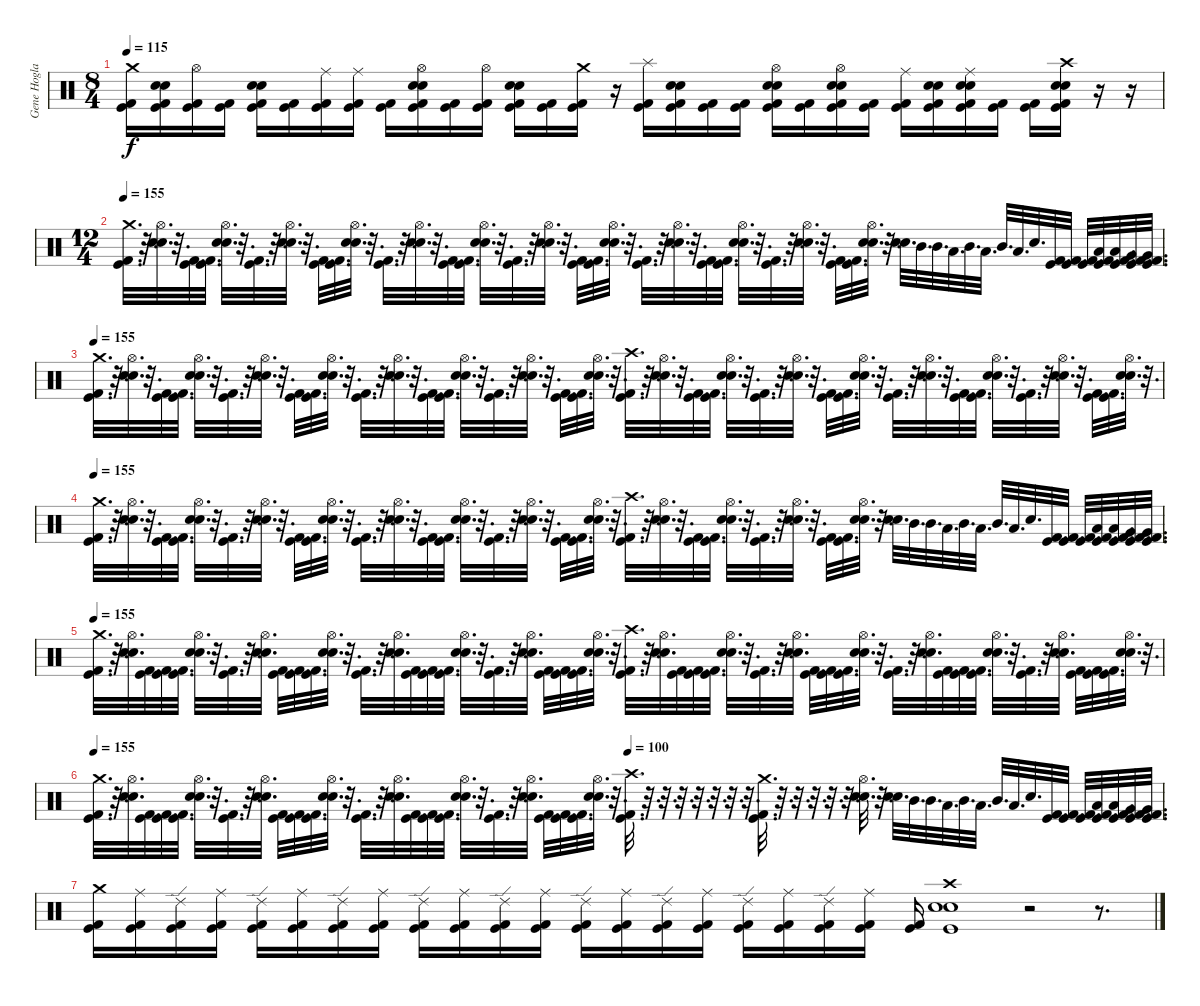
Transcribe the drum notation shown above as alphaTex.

\track ("Gene Hoglan" "Gene Hogla") {instrument percussion}
\staff {score}
\articulation defaults
\ts (8 4)
\tempo 115
\clef neutral
\ks c
("Crash medium (hit)" "Kick (hit) 2" "Kick (hit)").16{dy f} ("Snare (hit) 2" "Electric Snare (hit)" "Kick (hit) 2" "Kick (hit)").16 ("Hi-Hat (open)" "Kick (hit) 2" "Kick (hit)").16 ("Kick (hit) 2" "Kick (hit)").16 ("Snare (hit) 2" "Electric Snare (hit)" "Kick (hit) 2" "Kick (hit)").16 ("Kick (hit) 2" "Kick (hit)").16 ("Ride (middle)" "Kick (hit) 2" "Kick (hit)").16 ("Ride (middle)" "Kick (hit) 2" "Kick (hit)").16 ("Kick (hit) 2" "Kick (hit)").16 ("Hi-Hat (open)" "Snare (hit) 2" "Electric Snare (hit)" "Kick (hit) 2" "Kick (hit)").16 ("Kick (hit) 2" "Kick (hit)").16 ("Hi-Hat (open)" "Kick (hit) 2" "Kick (hit)").16 ("Snare (hit) 2" "Electric Snare (hit)" "Kick (hit) 2" "Kick (hit)").16 ("Kick (hit) 2" "Kick (hit)").16 ("Crash medium (hit)" "Kick (hit) 2" "Kick (hit)").16 r.16 ("Splash (hit)" "Kick (hit) 2" "Kick (hit)").16 ("Snare (hit) 2" "Electric Snare (hit)" "Kick (hit) 2" "Kick (hit)").16 ("Kick (hit) 2" "Kick (hit)").16 ("Kick (hit) 2" "Kick (hit)").16 ("Hi-Hat (open)" "Snare (hit) 2" "Electric Snare (hit)" "Kick (hit) 2" "Kick (hit)").16 ("Kick (hit) 2" "Kick (hit)").16 ("Hi-Hat (open)" "Snare (hit) 2" "Electric Snare (hit)" "Kick (hit) 2" "Kick (hit)").16 ("Kick (hit) 2" "Kick (hit)").16 ("Ride (middle)" "Kick (hit) 2" "Kick (hit)").16 ("Snare (hit) 2" "Electric Snare (hit)" "Kick (hit) 2" "Kick (hit)").16 ("Ride (middle)" "Snare (hit) 2" "Electric Snare (hit)" "Kick (hit) 2" "Kick (hit)").16 ("Kick (hit) 2" "Kick (hit)").16 ("Kick (hit) 2" "Kick (hit)").16 ("Crash high (hit)" "Snare (hit) 2" "Electric Snare (hit)" "Kick (hit) 2" "Kick (hit)").16 r.16 r.16 |
\ts (12 4)
\tempo 155
("Crash medium (hit)" "Kick (hit)" "Kick (hit) 2").32{d} r.32{d} ("Hi-Hat (open)" "Snare (hit) 2" "Electric Snare (hit)").32{d} r.32{d} ("Kick (hit) 2" "Kick (hit)").32{d} ("Kick (hit) 2" "Kick (hit)").32{d} ("Hi-Hat (open)" "Snare (hit) 2" "Electric Snare (hit)").32{d} r.32{d} ("Kick (hit) 2" "Kick (hit)").32{d} r.32{d} ("Hi-Hat (open)" "Snare (hit) 2" "Electric Snare (hit)").32{d} r.32{d} ("Kick (hit) 2" "Kick (hit)").32{d} ("Kick (hit) 2" "Kick (hit)").32{d} ("Hi-Hat (open)" "Snare (hit) 2" "Electric Snare (hit)").32{d} r.32{d} ("Kick (hit) 2" "Kick (hit)").32{d} r.32{d} ("Hi-Hat (open)" "Snare (hit) 2" "Electric Snare (hit)").32{d} r.32{d} ("Kick (hit) 2" "Kick (hit)").32{d} ("Kick (hit) 2" "Kick (hit)").32{d} ("Hi-Hat (open)" "Snare (hit) 2" "Electric Snare (hit)").32{d} r.32{d} ("Kick (hit) 2" "Kick (hit)").32{d} r.32{d} ("Hi-Hat (open)" "Snare (hit) 2" "Electric Snare (hit)").32{d} r.32{d} ("Kick (hit) 2" "Kick (hit)").32{d} ("Kick (hit) 2" "Kick (hit)").32{d} ("Hi-Hat (open)" "Snare (hit) 2" "Electric Snare (hit)").32{d} r.32{d} ("Kick (hit) 2" "Kick (hit)").32{d} r.32{d} ("Hi-Hat (open)" "Snare (hit) 2" "Electric Snare (hit)").32{d} r.32{d} ("Kick (hit) 2" "Kick (hit)").32{d} ("Kick (hit) 2" "Kick (hit)").32{d} ("Hi-Hat (open)" "Snare (hit) 2" "Electric Snare (hit)").32{d} r.32{d} ("Kick (hit) 2" "Kick (hit)").32{d} r.32{d} ("Hi-Hat (open)" "Snare (hit) 2" "Electric Snare (hit)").32{d} r.32{d} ("Kick (hit) 2" "Kick (hit)").32{d} ("Kick (hit) 2" "Kick (hit)").32{d} ("Hi-Hat (open)" "Snare (hit) 2" "Electric Snare (hit)").32{d} r.32{d} ("Snare (hit) 2" "Electric Snare (hit)").32{d} "Mid Tom (hit)".32{d} "Mid Tom (hit)".32{d} "Low Tom (hit)".32{d} "Mid Tom (hit)".32{d} "Low Tom (hit)".32{d} "Mid Tom (hit)".32{d} "Low Tom (hit)".32{d} "Electric Snare (hit)".32{d} ("Kick (hit) 2" "Kick (hit)").32{d} ("Kick (hit) 2" "Kick (hit)").32{d} ("Kick (hit) 2" "Kick (hit)").32{d} ("Low Tom (hit)" "Kick (hit) 2" "Kick (hit)").32{d} ("Low Tom (hit)" "Kick (hit) 2" "Kick (hit)").32{d} ("Very Low Tom (hit)" "Kick (hit) 2" "Kick (hit)").32{d} ("Very Low Tom (hit)" "Kick (hit) 2" "Kick (hit)").32{d} |
\tempo 155
("Crash medium (hit)" "Kick (hit)" "Kick (hit) 2").32{d} r.32{d} ("Hi-Hat (open)" "Snare (hit) 2" "Electric Snare (hit)").32{d} r.32{d} ("Kick (hit) 2" "Kick (hit)").32{d} ("Kick (hit) 2" "Kick (hit)").32{d} ("Hi-Hat (open)" "Snare (hit) 2" "Electric Snare (hit)").32{d} r.32{d} ("Kick (hit) 2" "Kick (hit)").32{d} r.32{d} ("Hi-Hat (open)" "Snare (hit) 2" "Electric Snare (hit)").32{d} r.32{d} ("Kick (hit) 2" "Kick (hit)").32{d} ("Kick (hit) 2" "Kick (hit)").32{d} ("Hi-Hat (open)" "Snare (hit) 2" "Electric Snare (hit)").32{d} r.32{d} ("Kick (hit) 2" "Kick (hit)").32{d} r.32{d} ("Hi-Hat (open)" "Snare (hit) 2" "Electric Snare (hit)").32{d} r.32{d} ("Kick (hit) 2" "Kick (hit)").32{d} ("Kick (hit) 2" "Kick (hit)").32{d} ("Hi-Hat (open)" "Snare (hit) 2" "Electric Snare (hit)").32{d} r.32{d} ("Kick (hit) 2" "Kick (hit)").32{d} r.32{d} ("Hi-Hat (open)" "Snare (hit) 2" "Electric Snare (hit)").32{d} r.32{d} ("Kick (hit) 2" "Kick (hit)").32{d} ("Kick (hit) 2" "Kick (hit)").32{d} ("Hi-Hat (open)" "Snare (hit) 2" "Electric Snare (hit)").32{d} r.32{d} ("Crash high (hit)" "Kick (hit) 2" "Kick (hit)").32{d} r.32{d} ("Hi-Hat (open)" "Snare (hit) 2" "Electric Snare (hit)").32{d} r.32{d} ("Kick (hit) 2" "Kick (hit)").32{d} ("Kick (hit) 2" "Kick (hit)").32{d} ("Hi-Hat (open)" "Snare (hit) 2" "Electric Snare (hit)").32{d} r.32{d} ("Kick (hit) 2" "Kick (hit)").32{d} r.32{d} ("Hi-Hat (open)" "Snare (hit) 2" "Electric Snare (hit)").32{d} r.32{d} ("Kick (hit) 2" "Kick (hit)").32{d} ("Kick (hit) 2" "Kick (hit)").32{d} ("Hi-Hat (open)" "Snare (hit) 2" "Electric Snare (hit)").32{d} r.32{d} ("Kick (hit) 2" "Kick (hit)").32{d} r.32{d} ("Hi-Hat (open)" "Snare (hit) 2" "Electric Snare (hit)").32{d} r.32{d} ("Kick (hit) 2" "Kick (hit)").32{d} ("Kick (hit) 2" "Kick (hit)").32{d} ("Hi-Hat (open)" "Snare (hit) 2" "Electric Snare (hit)").32{d} r.32{d} ("Kick (hit) 2" "Kick (hit)").32{d} r.32{d} ("Hi-Hat (open)" "Snare (hit) 2" "Electric Snare (hit)").32{d} r.32{d} ("Kick (hit) 2" "Kick (hit)").32{d} ("Kick (hit) 2" "Kick (hit)").32{d} ("Hi-Hat (open)" "Snare (hit) 2" "Electric Snare (hit)").32{d} r.32{d} |
\tempo 155
("Crash medium (hit)" "Kick (hit)" "Kick (hit) 2").32{d} r.32{d} ("Hi-Hat (open)" "Snare (hit) 2" "Electric Snare (hit)").32{d} r.32{d} ("Kick (hit) 2" "Kick (hit)").32{d} ("Kick (hit) 2" "Kick (hit)").32{d} ("Hi-Hat (open)" "Snare (hit) 2" "Electric Snare (hit)").32{d} r.32{d} ("Kick (hit) 2" "Kick (hit)").32{d} r.32{d} ("Hi-Hat (open)" "Snare (hit) 2" "Electric Snare (hit)").32{d} r.32{d} ("Kick (hit) 2" "Kick (hit)").32{d} ("Kick (hit) 2" "Kick (hit)").32{d} ("Hi-Hat (open)" "Snare (hit) 2" "Electric Snare (hit)").32{d} r.32{d} ("Kick (hit) 2" "Kick (hit)").32{d} r.32{d} ("Hi-Hat (open)" "Snare (hit) 2" "Electric Snare (hit)").32{d} r.32{d} ("Kick (hit) 2" "Kick (hit)").32{d} ("Kick (hit) 2" "Kick (hit)").32{d} ("Hi-Hat (open)" "Snare (hit) 2" "Electric Snare (hit)").32{d} r.32{d} ("Kick (hit) 2" "Kick (hit)").32{d} r.32{d} ("Hi-Hat (open)" "Snare (hit) 2" "Electric Snare (hit)").32{d} r.32{d} ("Kick (hit) 2" "Kick (hit)").32{d} ("Kick (hit) 2" "Kick (hit)").32{d} ("Hi-Hat (open)" "Snare (hit) 2" "Electric Snare (hit)").32{d} r.32{d} ("Crash high (hit)" "Kick (hit) 2" "Kick (hit)").32{d} r.32{d} ("Hi-Hat (open)" "Snare (hit) 2" "Electric Snare (hit)").32{d} r.32{d} ("Kick (hit) 2" "Kick (hit)").32{d} ("Kick (hit) 2" "Kick (hit)").32{d} ("Hi-Hat (open)" "Snare (hit) 2" "Electric Snare (hit)").32{d} r.32{d} ("Kick (hit) 2" "Kick (hit)").32{d} r.32{d} ("Hi-Hat (open)" "Snare (hit) 2" "Electric Snare (hit)").32{d} r.32{d} ("Kick (hit) 2" "Kick (hit)").32{d} ("Kick (hit) 2" "Kick (hit)").32{d} ("Hi-Hat (open)" "Snare (hit) 2" "Electric Snare (hit)").32{d} r.32{d} ("Snare (hit) 2" "Electric Snare (hit)").32{d} "Mid Tom (hit)".32{d} "Mid Tom (hit)".32{d} "Low Tom (hit)".32{d} "Mid Tom (hit)".32{d} "Low Tom (hit)".32{d} "Mid Tom (hit)".32{d} "Low Tom (hit)".32{d} "Electric Snare (hit)".32{d} ("Kick (hit) 2" "Kick (hit)").32{d} ("Kick (hit) 2" "Kick (hit)").32{d} ("Kick (hit) 2" "Kick (hit)").32{d} ("Low Tom (hit)" "Kick (hit) 2" "Kick (hit)").32{d} ("Low Tom (hit)" "Kick (hit) 2" "Kick (hit)").32{d} ("Very Low Tom (hit)" "Kick (hit) 2" "Kick (hit)").32{d} ("Very Low Tom (hit)" "Kick (hit) 2" "Kick (hit)").32{d} |
\tempo 155
("Crash medium (hit)" "Kick (hit)" "Kick (hit) 2").32{d} r.32{d} ("Hi-Hat (open)" "Snare (hit) 2" "Electric Snare (hit)").32{d} ("Kick (hit) 2" "Kick (hit)").32{d} ("Kick (hit) 2" "Kick (hit)").32{d} ("Kick (hit) 2" "Kick (hit)").32{d} ("Hi-Hat (open)" "Snare (hit) 2" "Electric Snare (hit)").32{d} r.32{d} ("Kick (hit) 2" "Kick (hit)").32{d} r.32{d} ("Hi-Hat (open)" "Snare (hit) 2" "Electric Snare (hit)").32{d} ("Kick (hit) 2" "Kick (hit)").32{d} ("Kick (hit) 2" "Kick (hit)").32{d} ("Kick (hit) 2" "Kick (hit)").32{d} ("Hi-Hat (open)" "Snare (hit) 2" "Electric Snare (hit)").32{d} r.32{d} ("Kick (hit) 2" "Kick (hit)").32{d} r.32{d} ("Hi-Hat (open)" "Snare (hit) 2" "Electric Snare (hit)").32{d} ("Kick (hit) 2" "Kick (hit)").32{d} ("Kick (hit) 2" "Kick (hit)").32{d} ("Kick (hit) 2" "Kick (hit)").32{d} ("Hi-Hat (open)" "Snare (hit) 2" "Electric Snare (hit)").32{d} r.32{d} ("Kick (hit) 2" "Kick (hit)").32{d} r.32{d} ("Hi-Hat (open)" "Snare (hit) 2" "Electric Snare (hit)").32{d} ("Kick (hit) 2" "Kick (hit)").32{d} ("Kick (hit) 2" "Kick (hit)").32{d} ("Kick (hit) 2" "Kick (hit)").32{d} ("Hi-Hat (open)" "Snare (hit) 2" "Electric Snare (hit)").32{d} r.32{d} ("Crash high (hit)" "Kick (hit) 2" "Kick (hit)").32{d} r.32{d} ("Hi-Hat (open)" "Snare (hit) 2" "Electric Snare (hit)").32{d} ("Kick (hit) 2" "Kick (hit)").32{d} ("Kick (hit) 2" "Kick (hit)").32{d} ("Kick (hit) 2" "Kick (hit)").32{d} ("Hi-Hat (open)" "Snare (hit) 2" "Electric Snare (hit)").32{d} r.32{d} ("Kick (hit) 2" "Kick (hit)").32{d} r.32{d} ("Hi-Hat (open)" "Snare (hit) 2" "Electric Snare (hit)").32{d} ("Kick (hit) 2" "Kick (hit)").32{d} ("Kick (hit) 2" "Kick (hit)").32{d} ("Kick (hit) 2" "Kick (hit)").32{d} ("Hi-Hat (open)" "Snare (hit) 2" "Electric Snare (hit)").32{d} r.32{d} ("Kick (hit) 2" "Kick (hit)").32{d} r.32{d} ("Hi-Hat (open)" "Snare (hit) 2" "Electric Snare (hit)").32{d} ("Kick (hit) 2" "Kick (hit)").32{d} ("Kick (hit) 2" "Kick (hit)").32{d} ("Kick (hit) 2" "Kick (hit)").32{d} ("Hi-Hat (open)" "Snare (hit) 2" "Electric Snare (hit)").32{d} r.32{d} ("Kick (hit) 2" "Kick (hit)").32{d} r.32{d} ("Hi-Hat (open)" "Snare (hit) 2" "Electric Snare (hit)").32{d} ("Kick (hit) 2" "Kick (hit)").32{d} ("Kick (hit) 2" "Kick (hit)").32{d} ("Kick (hit) 2" "Kick (hit)").32{d} ("Hi-Hat (open)" "Snare (hit) 2" "Electric Snare (hit)").32{d} r.32{d} |
\tempo (100 0.5)
\tempo 155
("Crash medium (hit)" "Kick (hit)" "Kick (hit) 2").32{d} r.32{d} ("Hi-Hat (open)" "Snare (hit) 2" "Electric Snare (hit)").32{d} ("Kick (hit) 2" "Kick (hit)").32{d} ("Kick (hit) 2" "Kick (hit)").32{d} ("Kick (hit) 2" "Kick (hit)").32{d} ("Hi-Hat (open)" "Snare (hit) 2" "Electric Snare (hit)").32{d} r.32{d} ("Kick (hit) 2" "Kick (hit)").32{d} r.32{d} ("Hi-Hat (open)" "Snare (hit) 2" "Electric Snare (hit)").32{d} ("Kick (hit) 2" "Kick (hit)").32{d} ("Kick (hit) 2" "Kick (hit)").32{d} ("Kick (hit) 2" "Kick (hit)").32{d} ("Hi-Hat (open)" "Snare (hit) 2" "Electric Snare (hit)").32{d} r.32{d} ("Kick (hit) 2" "Kick (hit)").32{d} r.32{d} ("Hi-Hat (open)" "Snare (hit) 2" "Electric Snare (hit)").32{d} ("Kick (hit) 2" "Kick (hit)").32{d} ("Kick (hit) 2" "Kick (hit)").32{d} ("Kick (hit) 2" "Kick (hit)").32{d} ("Hi-Hat (open)" "Snare (hit) 2" "Electric Snare (hit)").32{d} r.32{d} ("Kick (hit) 2" "Kick (hit)").32{d} r.32{d} ("Hi-Hat (open)" "Snare (hit) 2" "Electric Snare (hit)").32{d} ("Kick (hit) 2" "Kick (hit)").32{d} ("Kick (hit) 2" "Kick (hit)").32{d} ("Kick (hit) 2" "Kick (hit)").32{d} ("Hi-Hat (open)" "Snare (hit) 2" "Electric Snare (hit)").32{d} r.32{d} ("Crash high (hit)" "Kick (hit) 2" "Kick (hit)").32{d} r.32{d} r.32{d} r.32{d} r.32{d} r.32{d} r.32{d} r.32{d} ("Crash medium (hit)" "Kick (hit) 2" "Kick (hit)").32{d} r.32{d} r.32{d} r.32{d} r.32{d} r.32{d} ("Hi-Hat (open)" "Snare (hit) 2" "Electric Snare (hit)").32{d} r.32{d} ("Snare (hit) 2" "Electric Snare (hit)").32{d} "Mid Tom (hit)".32{d} "Mid Tom (hit)".32{d} "Low Tom (hit)".32{d} "Mid Tom (hit)".32{d} "Low Tom (hit)".32{d} "Mid Tom (hit)".32{d} "Low Tom (hit)".32{d} "Electric Snare (hit)".32{d} ("Kick (hit) 2" "Kick (hit)").32{d} ("Kick (hit) 2" "Kick (hit)").32{d} ("Kick (hit) 2" "Kick (hit)").32{d} ("Low Tom (hit)" "Kick (hit) 2" "Kick (hit)").32{d} ("Low Tom (hit)" "Kick (hit) 2" "Kick (hit)").32{d} ("Very Low Tom (hit)" "Kick (hit) 2" "Kick (hit)").32{d} ("Very Low Tom (hit)" "Kick (hit) 2" "Kick (hit)").32{d} |
("Crash medium (hit)" "Kick (hit) 2" "Kick (hit)").16 ("Ride (middle)" "Kick (hit) 2" "Kick (hit)").16 ("Ride (edge) 2" "Kick (hit) 2" "Kick (hit)").16 ("Ride (middle)" "Kick (hit) 2" "Kick (hit)").16 ("Ride (edge) 2" "Kick (hit) 2" "Kick (hit)").16 ("Ride (middle)" "Kick (hit) 2" "Kick (hit)").16 ("Ride (edge) 2" "Kick (hit) 2" "Kick (hit)").16 ("Ride (middle)" "Kick (hit) 2" "Kick (hit)").16 ("Ride (edge) 2" "Kick (hit) 2" "Kick (hit)").16 ("Ride (middle)" "Kick (hit) 2" "Kick (hit)").16 ("Ride (edge) 2" "Kick (hit) 2" "Kick (hit)").16 ("Ride (middle)" "Kick (hit) 2" "Kick (hit)").16 ("Ride (edge) 2" "Kick (hit) 2" "Kick (hit)").16 ("Ride (middle)" "Kick (hit) 2" "Kick (hit)").16 ("Ride (edge) 2" "Kick (hit) 2" "Kick (hit)").16 ("Ride (middle)" "Kick (hit) 2" "Kick (hit)").16 ("Ride (edge) 2" "Kick (hit) 2" "Kick (hit)").16 ("Ride (middle)" "Kick (hit) 2" "Kick (hit)").16 ("Ride (edge) 2" "Kick (hit) 2" "Kick (hit)").16 ("Ride (middle)" "Kick (hit) 2" "Kick (hit)").16 ("Kick (hit) 2" "Kick (hit)").16 ("Crash high (hit)" "Snare (hit) 2" "Electric Snare (hit)" "Kick (hit)").1 r.2 r.8{d}
